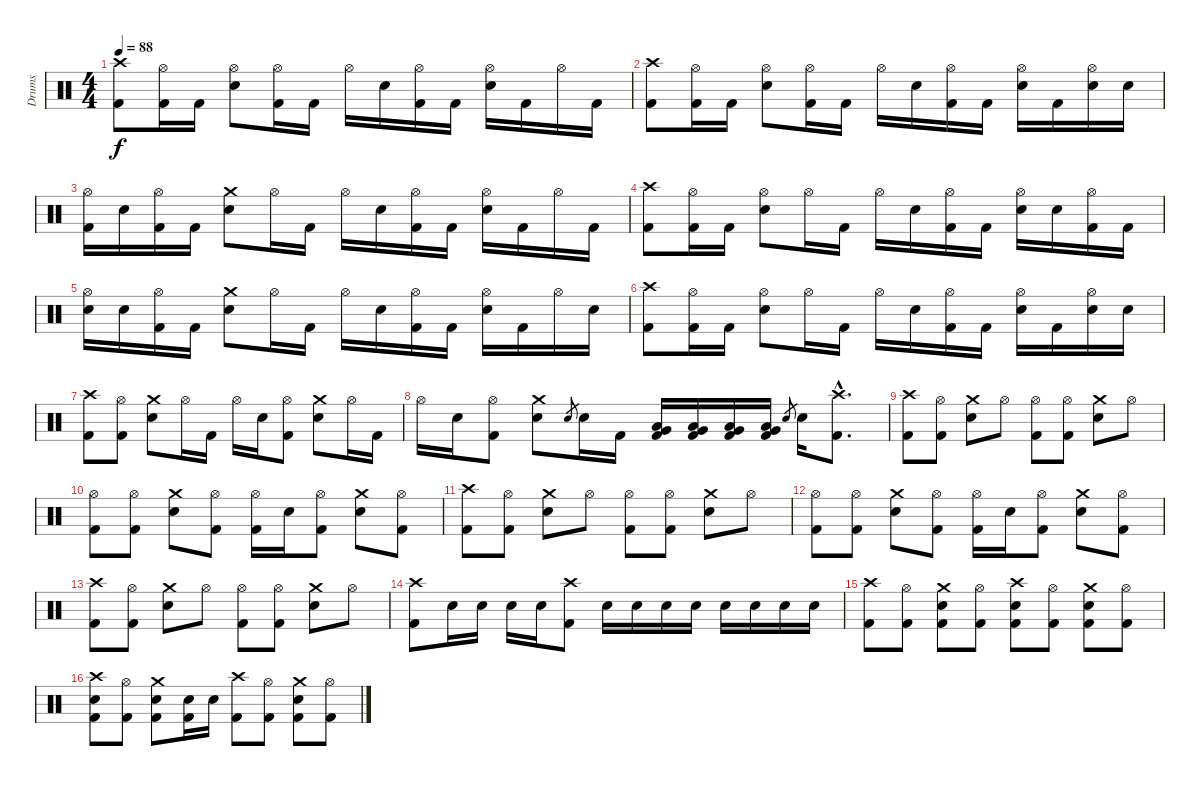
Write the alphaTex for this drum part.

\track ("Drums" "Drums") {instrument percussion}
\staff {score}
\articulation defaults
\ts (4 4)
\tempo 88
\clef neutral
\ks c
("Crash high (hit)" "Kick (hit) 2").8{dy f} ("Hi-Hat (open)" "Kick (hit) 2").16 "Kick (hit) 2".16 ("Hi-Hat (open)" "Snare (hit) 2").8 ("Hi-Hat (open)" "Kick (hit) 2").16 "Kick (hit) 2".16 "Hi-Hat (open)".16 "Snare (hit) 2".16 ("Hi-Hat (open)" "Kick (hit) 2").16 "Kick (hit) 2".16 ("Hi-Hat (open)" "Snare (hit) 2").16 "Kick (hit) 2".16 "Hi-Hat (open)".16 "Kick (hit) 2".16 |
("Crash high (hit)" "Kick (hit) 2").8 ("Hi-Hat (open)" "Kick (hit) 2").16 "Kick (hit) 2".16 ("Hi-Hat (open)" "Snare (hit) 2").8 ("Hi-Hat (open)" "Kick (hit) 2").16 "Kick (hit) 2".16 "Hi-Hat (open)".16 "Snare (hit) 2".16 ("Hi-Hat (open)" "Kick (hit) 2").16 "Kick (hit) 2".16 ("Hi-Hat (open)" "Snare (hit) 2").16 "Kick (hit) 2".16 ("Hi-Hat (open)" "Snare (hit) 2").16 "Snare (hit) 2".16 |
("Hi-Hat (open)" "Kick (hit) 2").16 "Snare (hit) 2".16 ("Hi-Hat (open)" "Kick (hit) 2").16 "Kick (hit) 2".16 ("Crash medium (hit)" "Snare (hit) 2").8 "Hi-Hat (open)".16 "Kick (hit) 2".16 "Hi-Hat (open)".16 "Snare (hit) 2".16 ("Hi-Hat (open)" "Kick (hit) 2").16 "Kick (hit) 2".16 ("Hi-Hat (open)" "Snare (hit) 2").16 "Kick (hit) 2".16 "Hi-Hat (open)".16 "Kick (hit) 2".16 |
("Crash high (hit)" "Kick (hit) 2").8 ("Hi-Hat (open)" "Kick (hit) 2").16 "Kick (hit) 2".16 ("Hi-Hat (open)" "Snare (hit) 2").8 "Hi-Hat (open)".16 "Kick (hit) 2".16 "Hi-Hat (open)".16 "Snare (hit) 2".16 ("Hi-Hat (open)" "Kick (hit) 2").16 "Kick (hit) 2".16 ("Hi-Hat (open)" "Snare (hit) 2").16 "Snare (hit) 2".16 ("Hi-Hat (open)" "Kick (hit) 2").16 "Kick (hit) 2".16 |
("Hi-Hat (open)" "Snare (hit) 2").16 "Snare (hit) 2".16 ("Hi-Hat (open)" "Kick (hit) 2").16 "Kick (hit) 2".16 ("Crash medium (hit)" "Snare (hit) 2").8 "Hi-Hat (open)".16 "Kick (hit) 2".16 "Hi-Hat (open)".16 "Snare (hit) 2".16 ("Hi-Hat (open)" "Kick (hit) 2").16 "Kick (hit) 2".16 ("Hi-Hat (open)" "Snare (hit) 2").16 "Kick (hit) 2".16 "Hi-Hat (open)".16 "Snare (hit) 2".16 |
("Crash high (hit)" "Kick (hit) 2").8 ("Hi-Hat (open)" "Kick (hit) 2").16 "Kick (hit) 2".16 ("Hi-Hat (open)" "Snare (hit) 2").8 "Hi-Hat (open)".16 "Kick (hit) 2".16 "Hi-Hat (open)".16 "Snare (hit) 2".16 ("Hi-Hat (open)" "Kick (hit) 2").16 "Kick (hit) 2".16 ("Hi-Hat (open)" "Snare (hit) 2").16 "Kick (hit) 2".16 ("Hi-Hat (open)" "Snare (hit) 2").16 "Snare (hit) 2".16 |
("Crash high (hit)" "Kick (hit) 2").8 ("Hi-Hat (open)" "Kick (hit) 2").8 ("Crash medium (hit)" "Snare (hit) 2").8 "Hi-Hat (open)".16 "Kick (hit) 2".16 "Hi-Hat (open)".16 "Snare (hit) 2".16 ("Hi-Hat (open)" "Kick (hit) 2").8 ("Crash medium (hit)" "Snare (hit) 2").8 "Hi-Hat (open)".16 "Kick (hit) 2".16 |
"Hi-Hat (open)".16 "Snare (hit) 2".16 ("Hi-Hat (open)" "Kick (hit) 2").8 ("Crash medium (hit)" "Snare (hit) 2").8 "Snare (hit) 2".8{gr} "Snare (hit) 2".16 "Kick (hit) 2".16 ("Low Tom (hit)" "Very Low Tom (hit)" "Kick (hit) 2").16 ("Low Tom (hit)" "Very Low Tom (hit)" "Kick (hit) 2").16 ("Low Tom (hit)" "Very Low Tom (hit)" "Kick (hit) 2").16 ("Low Tom (hit)" "Very Low Tom (hit)" "Kick (hit) 2").16 "Snare (hit) 2".8{gr} "Snare (hit) 2".16 ("Crash high (hit)"{hac} "Kick (hit) 2"{hac}).8{d} |
("Crash high (hit)" "Kick (hit) 2").8 ("Hi-Hat (open)" "Kick (hit) 2").8 ("Crash medium (hit)" "Snare (hit) 2").8 "Hi-Hat (open)".8 ("Hi-Hat (open)" "Kick (hit) 2").8 ("Hi-Hat (open)" "Kick (hit) 2").8 ("Crash medium (hit)" "Snare (hit) 2").8 "Hi-Hat (open)".8 |
("Hi-Hat (open)" "Kick (hit) 2").8 ("Hi-Hat (open)" "Kick (hit) 2").8 ("Crash medium (hit)" "Snare (hit) 2").8 ("Hi-Hat (open)" "Kick (hit) 2").8 ("Hi-Hat (open)" "Kick (hit) 2").16 "Snare (hit) 2".16 ("Hi-Hat (open)" "Kick (hit) 2").8 ("Crash medium (hit)" "Snare (hit) 2").8 ("Hi-Hat (open)" "Kick (hit) 2").8 |
("Crash high (hit)" "Kick (hit) 2").8 ("Hi-Hat (open)" "Kick (hit) 2").8 ("Crash medium (hit)" "Snare (hit) 2").8 "Hi-Hat (open)".8 ("Hi-Hat (open)" "Kick (hit) 2").8 ("Hi-Hat (open)" "Kick (hit) 2").8 ("Crash medium (hit)" "Snare (hit) 2").8 "Hi-Hat (open)".8 |
("Hi-Hat (open)" "Kick (hit) 2").8 ("Hi-Hat (open)" "Kick (hit) 2").8 ("Crash medium (hit)" "Snare (hit) 2").8 ("Hi-Hat (open)" "Kick (hit) 2").8 ("Hi-Hat (open)" "Kick (hit) 2").16 "Snare (hit) 2".16 ("Hi-Hat (open)" "Kick (hit) 2").8 ("Crash medium (hit)" "Snare (hit) 2").8 ("Hi-Hat (open)" "Kick (hit) 2").8 |
("Crash high (hit)" "Kick (hit) 2").8 ("Hi-Hat (open)" "Kick (hit) 2").8 ("Crash medium (hit)" "Snare (hit) 2").8 "Hi-Hat (open)".8 ("Hi-Hat (open)" "Kick (hit) 2").8 ("Hi-Hat (open)" "Kick (hit) 2").8 ("Crash medium (hit)" "Snare (hit) 2").8 "Hi-Hat (open)".8 |
("Crash high (hit)" "Kick (hit) 2").8 "Snare (hit) 2".16 "Snare (hit) 2".16 "Snare (hit) 2".16 "Snare (hit) 2".16 ("Crash high (hit)" "Kick (hit) 2").8 "Snare (hit) 2".16 "Snare (hit) 2".16 "Snare (hit) 2".16 "Snare (hit) 2".16 "Snare (hit) 2".16 "Snare (hit) 2".16 "Snare (hit) 2".16 "Snare (hit) 2".16 |
("Crash high (hit)" "Kick (hit) 2").8 ("Hi-Hat (open)" "Kick (hit) 2").8 ("Crash medium (hit)" "Snare (hit) 2" "Kick (hit) 2").8 ("Hi-Hat (open)" "Kick (hit) 2").8 ("Crash high (hit)" "Snare (hit) 2" "Kick (hit) 2").8 ("Hi-Hat (open)" "Kick (hit) 2").8 ("Crash medium (hit)" "Snare (hit) 2" "Kick (hit) 2").8 ("Hi-Hat (open)" "Kick (hit) 2").8 |
("Crash high (hit)" "Snare (hit) 2" "Kick (hit) 2").8 ("Hi-Hat (open)" "Kick (hit) 2").8 ("Crash medium (hit)" "Snare (hit) 2" "Kick (hit) 2").8 ("Snare (hit) 2" "Kick (hit) 2").16 "Snare (hit) 2".16 ("Crash high (hit)" "Kick (hit) 2").8 ("Hi-Hat (open)" "Kick (hit) 2").8 ("Crash medium (hit)" "Snare (hit) 2" "Kick (hit) 2").8 ("Hi-Hat (open)" "Kick (hit) 2").8
